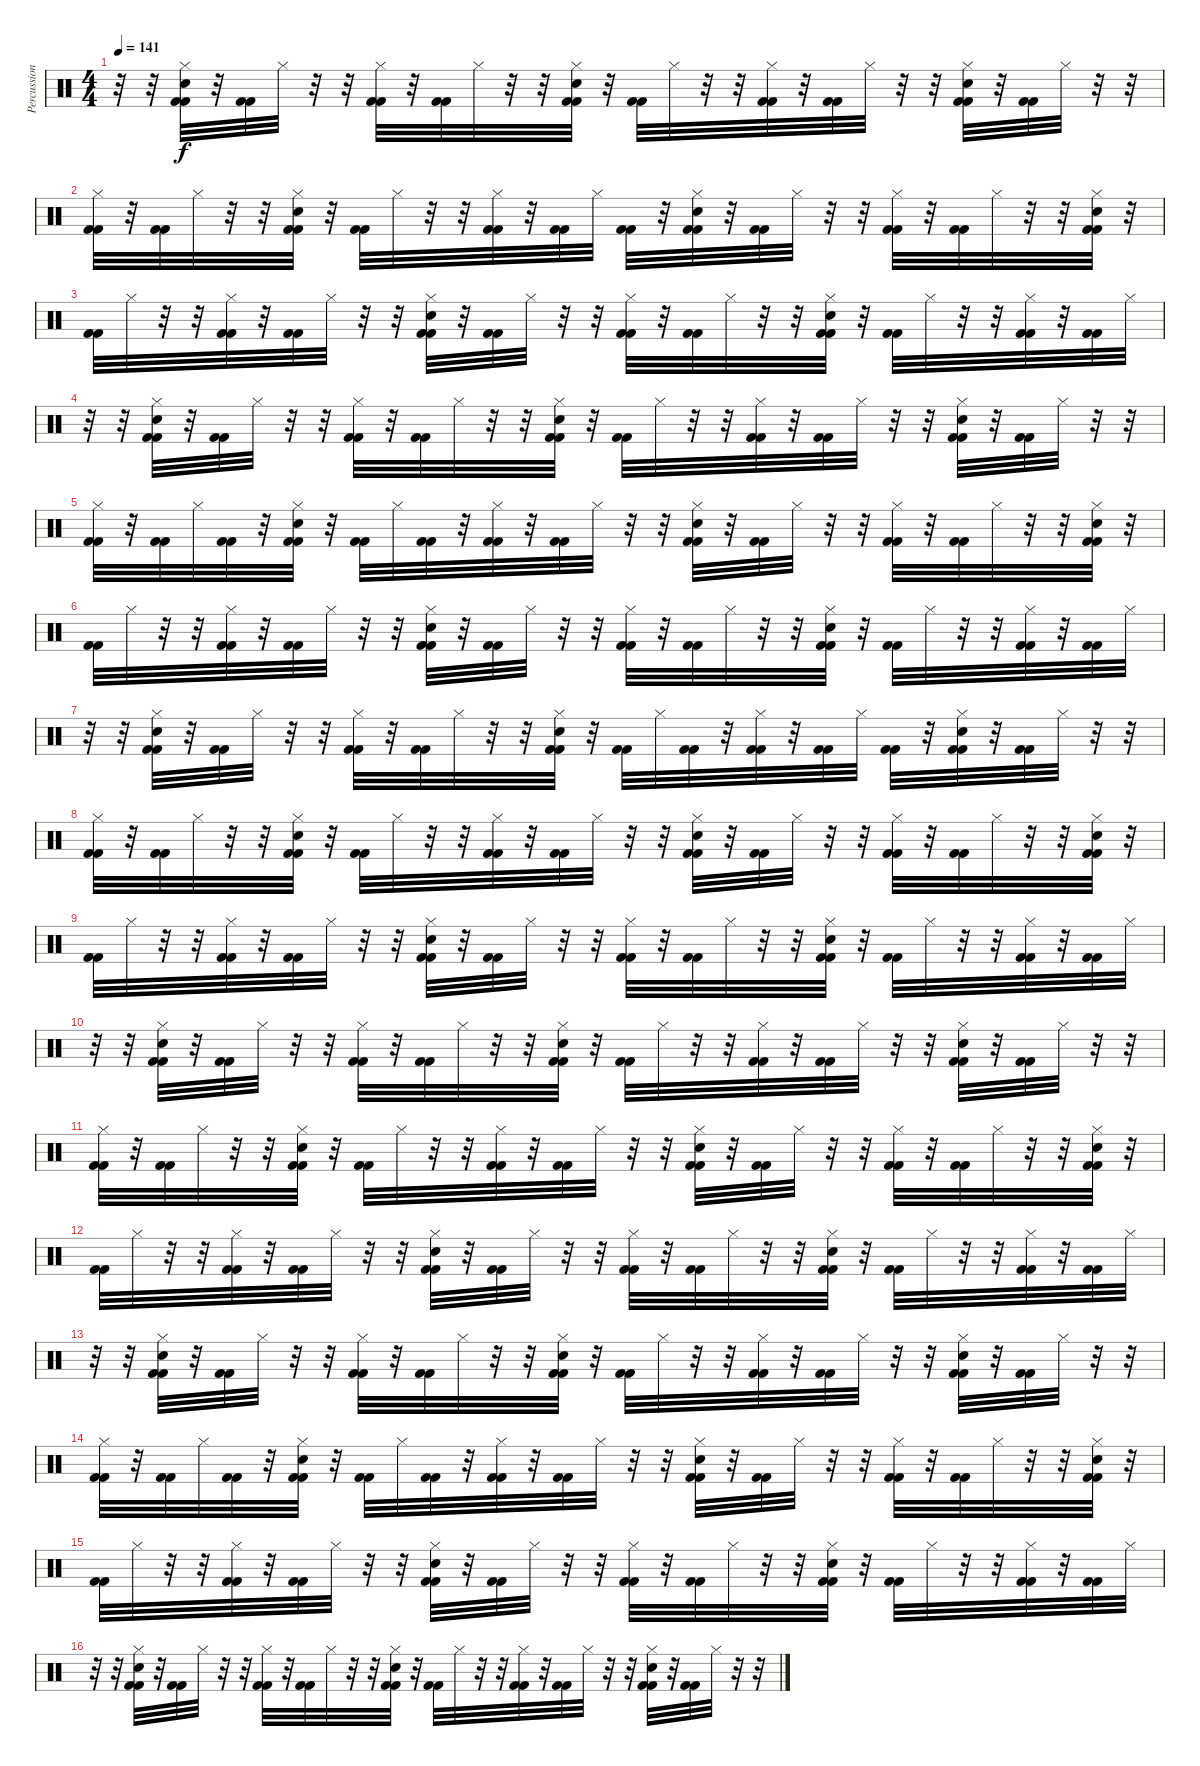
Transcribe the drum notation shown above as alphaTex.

\track ("Percussions" "Percussion") {instrument percussion}
\staff {score}
\articulation defaults
\ts (4 4)
\tempo 141
\clef neutral
\ks c
r.32{dy f} r.32 ("Hi-Hat (closed)" "Snare (hit) 2" "Kick (hit) 2" "Kick (hit) 2").32 r.32 ("Kick (hit) 2" "Kick (hit) 2").32 "Hi-Hat (closed)".32 r.32 r.32 ("Hi-Hat (closed)" "Kick (hit) 2" "Kick (hit) 2").32 r.32 ("Kick (hit) 2" "Kick (hit) 2").32 "Hi-Hat (closed)".32 r.32 r.32 ("Hi-Hat (closed)" "Snare (hit) 2" "Kick (hit) 2" "Kick (hit) 2").32 r.32 ("Kick (hit) 2" "Kick (hit) 2").32 "Hi-Hat (closed)".32 r.32 r.32 ("Hi-Hat (closed)" "Kick (hit) 2" "Kick (hit) 2").32 r.32 ("Kick (hit) 2" "Kick (hit) 2").32 "Hi-Hat (closed)".32 r.32 r.32 ("Hi-Hat (closed)" "Snare (hit) 2" "Kick (hit) 2" "Kick (hit) 2").32 r.32 ("Kick (hit) 2" "Kick (hit) 2").32 "Hi-Hat (closed)".32 r.32 r.32 |
("Hi-Hat (closed)" "Kick (hit) 2" "Kick (hit) 2").32 r.32 ("Kick (hit) 2" "Kick (hit) 2").32 "Hi-Hat (closed)".32 r.32 r.32 ("Hi-Hat (closed)" "Snare (hit) 2" "Kick (hit) 2" "Kick (hit) 2").32 r.32 ("Kick (hit) 2" "Kick (hit) 2").32 "Hi-Hat (closed)".32 r.32 r.32 ("Hi-Hat (closed)" "Kick (hit) 2" "Kick (hit) 2").32 r.32 ("Kick (hit) 2" "Kick (hit) 2").32 "Hi-Hat (closed)".32 ("Kick (hit) 2" "Kick (hit) 2").32 r.32 ("Hi-Hat (closed)" "Snare (hit) 2" "Kick (hit) 2" "Kick (hit) 2").32 r.32 ("Kick (hit) 2" "Kick (hit) 2").32 "Hi-Hat (closed)".32 r.32 r.32 ("Hi-Hat (closed)" "Kick (hit) 2" "Kick (hit) 2").32 r.32 ("Kick (hit) 2" "Kick (hit) 2").32 "Hi-Hat (closed)".32 r.32 r.32 ("Hi-Hat (closed)" "Snare (hit) 2" "Kick (hit) 2" "Kick (hit) 2").32 r.32 |
("Kick (hit) 2" "Kick (hit) 2").32 "Hi-Hat (closed)".32 r.32 r.32 ("Hi-Hat (closed)" "Kick (hit) 2" "Kick (hit) 2").32 r.32 ("Kick (hit) 2" "Kick (hit) 2").32 "Hi-Hat (closed)".32 r.32 r.32 ("Hi-Hat (closed)" "Snare (hit) 2" "Kick (hit) 2" "Kick (hit) 2").32 r.32 ("Kick (hit) 2" "Kick (hit) 2").32 "Hi-Hat (closed)".32 r.32 r.32 ("Hi-Hat (closed)" "Kick (hit) 2" "Kick (hit) 2").32 r.32 ("Kick (hit) 2" "Kick (hit) 2").32 "Hi-Hat (closed)".32 r.32 r.32 ("Hi-Hat (closed)" "Snare (hit) 2" "Kick (hit) 2" "Kick (hit) 2").32 r.32 ("Kick (hit) 2" "Kick (hit) 2").32 "Hi-Hat (closed)".32 r.32 r.32 ("Hi-Hat (closed)" "Kick (hit) 2" "Kick (hit) 2").32 r.32 ("Kick (hit) 2" "Kick (hit) 2").32 "Hi-Hat (closed)".32 |
r.32 r.32 ("Hi-Hat (closed)" "Snare (hit) 2" "Kick (hit) 2" "Kick (hit) 2").32 r.32 ("Kick (hit) 2" "Kick (hit) 2").32 "Hi-Hat (closed)".32 r.32 r.32 ("Hi-Hat (closed)" "Kick (hit) 2" "Kick (hit) 2").32 r.32 ("Kick (hit) 2" "Kick (hit) 2").32 "Hi-Hat (closed)".32 r.32 r.32 ("Hi-Hat (closed)" "Snare (hit) 2" "Kick (hit) 2" "Kick (hit) 2").32 r.32 ("Kick (hit) 2" "Kick (hit) 2").32 "Hi-Hat (closed)".32 r.32 r.32 ("Hi-Hat (closed)" "Kick (hit) 2" "Kick (hit) 2").32 r.32 ("Kick (hit) 2" "Kick (hit) 2").32 "Hi-Hat (closed)".32 r.32 r.32 ("Hi-Hat (closed)" "Snare (hit) 2" "Kick (hit) 2" "Kick (hit) 2").32 r.32 ("Kick (hit) 2" "Kick (hit) 2").32 "Hi-Hat (closed)".32 r.32 r.32 |
("Hi-Hat (closed)" "Kick (hit) 2" "Kick (hit) 2").32 r.32 ("Kick (hit) 2" "Kick (hit) 2").32 "Hi-Hat (closed)".32 ("Kick (hit) 2" "Kick (hit) 2").32 r.32 ("Hi-Hat (closed)" "Snare (hit) 2" "Kick (hit) 2" "Kick (hit) 2").32 r.32 ("Kick (hit) 2" "Kick (hit) 2").32 "Hi-Hat (closed)".32 ("Kick (hit) 2" "Kick (hit) 2").32 r.32 ("Hi-Hat (closed)" "Kick (hit) 2" "Kick (hit) 2").32 r.32 ("Kick (hit) 2" "Kick (hit) 2").32 "Hi-Hat (closed)".32 r.32 r.32 ("Hi-Hat (closed)" "Snare (hit) 2" "Kick (hit) 2" "Kick (hit) 2").32 r.32 ("Kick (hit) 2" "Kick (hit) 2").32 "Hi-Hat (closed)".32 r.32 r.32 ("Hi-Hat (closed)" "Kick (hit) 2" "Kick (hit) 2").32 r.32 ("Kick (hit) 2" "Kick (hit) 2").32 "Hi-Hat (closed)".32 r.32 r.32 ("Hi-Hat (closed)" "Snare (hit) 2" "Kick (hit) 2" "Kick (hit) 2").32 r.32 |
("Kick (hit) 2" "Kick (hit) 2").32 "Hi-Hat (closed)".32 r.32 r.32 ("Hi-Hat (closed)" "Kick (hit) 2" "Kick (hit) 2").32 r.32 ("Kick (hit) 2" "Kick (hit) 2").32 "Hi-Hat (closed)".32 r.32 r.32 ("Hi-Hat (closed)" "Snare (hit) 2" "Kick (hit) 2" "Kick (hit) 2").32 r.32 ("Kick (hit) 2" "Kick (hit) 2").32 "Hi-Hat (closed)".32 r.32 r.32 ("Hi-Hat (closed)" "Kick (hit) 2" "Kick (hit) 2").32 r.32 ("Kick (hit) 2" "Kick (hit) 2").32 "Hi-Hat (closed)".32 r.32 r.32 ("Hi-Hat (closed)" "Snare (hit) 2" "Kick (hit) 2" "Kick (hit) 2").32 r.32 ("Kick (hit) 2" "Kick (hit) 2").32 "Hi-Hat (closed)".32 r.32 r.32 ("Hi-Hat (closed)" "Kick (hit) 2" "Kick (hit) 2").32 r.32 ("Kick (hit) 2" "Kick (hit) 2").32 "Hi-Hat (closed)".32 |
r.32 r.32 ("Hi-Hat (closed)" "Snare (hit) 2" "Kick (hit) 2" "Kick (hit) 2").32 r.32 ("Kick (hit) 2" "Kick (hit) 2").32 "Hi-Hat (closed)".32 r.32 r.32 ("Hi-Hat (closed)" "Kick (hit) 2" "Kick (hit) 2").32 r.32 ("Kick (hit) 2" "Kick (hit) 2").32 "Hi-Hat (closed)".32 r.32 r.32 ("Hi-Hat (closed)" "Snare (hit) 2" "Kick (hit) 2" "Kick (hit) 2").32 r.32 ("Kick (hit) 2" "Kick (hit) 2").32 "Hi-Hat (closed)".32 ("Kick (hit) 2" "Kick (hit) 2").32 r.32 ("Hi-Hat (closed)" "Kick (hit) 2" "Kick (hit) 2").32 r.32 ("Kick (hit) 2" "Kick (hit) 2").32 "Hi-Hat (closed)".32 ("Kick (hit) 2" "Kick (hit) 2").32 r.32 ("Hi-Hat (closed)" "Snare (hit) 2" "Kick (hit) 2" "Kick (hit) 2").32 r.32 ("Kick (hit) 2" "Kick (hit) 2").32 "Hi-Hat (closed)".32 r.32 r.32 |
("Hi-Hat (closed)" "Kick (hit) 2" "Kick (hit) 2").32 r.32 ("Kick (hit) 2" "Kick (hit) 2").32 "Hi-Hat (closed)".32 r.32 r.32 ("Hi-Hat (closed)" "Snare (hit) 2" "Kick (hit) 2" "Kick (hit) 2").32 r.32 ("Kick (hit) 2" "Kick (hit) 2").32 "Hi-Hat (closed)".32 r.32 r.32 ("Hi-Hat (closed)" "Kick (hit) 2" "Kick (hit) 2").32 r.32 ("Kick (hit) 2" "Kick (hit) 2").32 "Hi-Hat (closed)".32 r.32 r.32 ("Hi-Hat (closed)" "Snare (hit) 2" "Kick (hit) 2" "Kick (hit) 2").32 r.32 ("Kick (hit) 2" "Kick (hit) 2").32 "Hi-Hat (closed)".32 r.32 r.32 ("Hi-Hat (closed)" "Kick (hit) 2" "Kick (hit) 2").32 r.32 ("Kick (hit) 2" "Kick (hit) 2").32 "Hi-Hat (closed)".32 r.32 r.32 ("Hi-Hat (closed)" "Snare (hit) 2" "Kick (hit) 2" "Kick (hit) 2").32 r.32 |
("Kick (hit) 2" "Kick (hit) 2").32 "Hi-Hat (closed)".32 r.32 r.32 ("Hi-Hat (closed)" "Kick (hit) 2" "Kick (hit) 2").32 r.32 ("Kick (hit) 2" "Kick (hit) 2").32 "Hi-Hat (closed)".32 r.32 r.32 ("Hi-Hat (closed)" "Snare (hit) 2" "Kick (hit) 2" "Kick (hit) 2").32 r.32 ("Kick (hit) 2" "Kick (hit) 2").32 "Hi-Hat (closed)".32 r.32 r.32 ("Hi-Hat (closed)" "Kick (hit) 2" "Kick (hit) 2").32 r.32 ("Kick (hit) 2" "Kick (hit) 2").32 "Hi-Hat (closed)".32 r.32 r.32 ("Hi-Hat (closed)" "Snare (hit) 2" "Kick (hit) 2" "Kick (hit) 2").32 r.32 ("Kick (hit) 2" "Kick (hit) 2").32 "Hi-Hat (closed)".32 r.32 r.32 ("Hi-Hat (closed)" "Kick (hit) 2" "Kick (hit) 2").32 r.32 ("Kick (hit) 2" "Kick (hit) 2").32 "Hi-Hat (closed)".32 |
r.32 r.32 ("Hi-Hat (closed)" "Snare (hit) 2" "Kick (hit) 2" "Kick (hit) 2").32 r.32 ("Kick (hit) 2" "Kick (hit) 2").32 "Hi-Hat (closed)".32 r.32 r.32 ("Hi-Hat (closed)" "Kick (hit) 2" "Kick (hit) 2").32 r.32 ("Kick (hit) 2" "Kick (hit) 2").32 "Hi-Hat (closed)".32 r.32 r.32 ("Hi-Hat (closed)" "Snare (hit) 2" "Kick (hit) 2" "Kick (hit) 2").32 r.32 ("Kick (hit) 2" "Kick (hit) 2").32 "Hi-Hat (closed)".32 r.32 r.32 ("Hi-Hat (closed)" "Kick (hit) 2" "Kick (hit) 2").32 r.32 ("Kick (hit) 2" "Kick (hit) 2").32 "Hi-Hat (closed)".32 r.32 r.32 ("Hi-Hat (closed)" "Snare (hit) 2" "Kick (hit) 2" "Kick (hit) 2").32 r.32 ("Kick (hit) 2" "Kick (hit) 2").32 "Hi-Hat (closed)".32 r.32 r.32 |
("Hi-Hat (closed)" "Kick (hit) 2" "Kick (hit) 2").32 r.32 ("Kick (hit) 2" "Kick (hit) 2").32 "Hi-Hat (closed)".32 r.32 r.32 ("Hi-Hat (closed)" "Snare (hit) 2" "Kick (hit) 2" "Kick (hit) 2").32 r.32 ("Kick (hit) 2" "Kick (hit) 2").32 "Hi-Hat (closed)".32 r.32 r.32 ("Hi-Hat (closed)" "Kick (hit) 2" "Kick (hit) 2").32 r.32 ("Kick (hit) 2" "Kick (hit) 2").32 "Hi-Hat (closed)".32 r.32 r.32 ("Hi-Hat (closed)" "Snare (hit) 2" "Kick (hit) 2" "Kick (hit) 2").32 r.32 ("Kick (hit) 2" "Kick (hit) 2").32 "Hi-Hat (closed)".32 r.32 r.32 ("Hi-Hat (closed)" "Kick (hit) 2" "Kick (hit) 2").32 r.32 ("Kick (hit) 2" "Kick (hit) 2").32 "Hi-Hat (closed)".32 r.32 r.32 ("Hi-Hat (closed)" "Snare (hit) 2" "Kick (hit) 2" "Kick (hit) 2").32 r.32 |
("Kick (hit) 2" "Kick (hit) 2").32 "Hi-Hat (closed)".32 r.32 r.32 ("Hi-Hat (closed)" "Kick (hit) 2" "Kick (hit) 2").32 r.32 ("Kick (hit) 2" "Kick (hit) 2").32 "Hi-Hat (closed)".32 r.32 r.32 ("Hi-Hat (closed)" "Snare (hit) 2" "Kick (hit) 2" "Kick (hit) 2").32 r.32 ("Kick (hit) 2" "Kick (hit) 2").32 "Hi-Hat (closed)".32 r.32 r.32 ("Hi-Hat (closed)" "Kick (hit) 2" "Kick (hit) 2").32 r.32 ("Kick (hit) 2" "Kick (hit) 2").32 "Hi-Hat (closed)".32 r.32 r.32 ("Hi-Hat (closed)" "Snare (hit) 2" "Kick (hit) 2" "Kick (hit) 2").32 r.32 ("Kick (hit) 2" "Kick (hit) 2").32 "Hi-Hat (closed)".32 r.32 r.32 ("Hi-Hat (closed)" "Kick (hit) 2" "Kick (hit) 2").32 r.32 ("Kick (hit) 2" "Kick (hit) 2").32 "Hi-Hat (closed)".32 |
r.32 r.32 ("Hi-Hat (closed)" "Snare (hit) 2" "Kick (hit) 2" "Kick (hit) 2").32 r.32 ("Kick (hit) 2" "Kick (hit) 2").32 "Hi-Hat (closed)".32 r.32 r.32 ("Hi-Hat (closed)" "Kick (hit) 2" "Kick (hit) 2").32 r.32 ("Kick (hit) 2" "Kick (hit) 2").32 "Hi-Hat (closed)".32 r.32 r.32 ("Hi-Hat (closed)" "Snare (hit) 2" "Kick (hit) 2" "Kick (hit) 2").32 r.32 ("Kick (hit) 2" "Kick (hit) 2").32 "Hi-Hat (closed)".32 r.32 r.32 ("Hi-Hat (closed)" "Kick (hit) 2" "Kick (hit) 2").32 r.32 ("Kick (hit) 2" "Kick (hit) 2").32 "Hi-Hat (closed)".32 r.32 r.32 ("Hi-Hat (closed)" "Snare (hit) 2" "Kick (hit) 2" "Kick (hit) 2").32 r.32 ("Kick (hit) 2" "Kick (hit) 2").32 "Hi-Hat (closed)".32 r.32 r.32 |
("Hi-Hat (closed)" "Kick (hit) 2" "Kick (hit) 2").32 r.32 ("Kick (hit) 2" "Kick (hit) 2").32 "Hi-Hat (closed)".32 ("Kick (hit) 2" "Kick (hit) 2").32 r.32 ("Hi-Hat (closed)" "Snare (hit) 2" "Kick (hit) 2" "Kick (hit) 2").32 r.32 ("Kick (hit) 2" "Kick (hit) 2").32 "Hi-Hat (closed)".32 ("Kick (hit) 2" "Kick (hit) 2").32 r.32 ("Hi-Hat (closed)" "Kick (hit) 2" "Kick (hit) 2").32 r.32 ("Kick (hit) 2" "Kick (hit) 2").32 "Hi-Hat (closed)".32 r.32 r.32 ("Hi-Hat (closed)" "Snare (hit) 2" "Kick (hit) 2" "Kick (hit) 2").32 r.32 ("Kick (hit) 2" "Kick (hit) 2").32 "Hi-Hat (closed)".32 r.32 r.32 ("Hi-Hat (closed)" "Kick (hit) 2" "Kick (hit) 2").32 r.32 ("Kick (hit) 2" "Kick (hit) 2").32 "Hi-Hat (closed)".32 r.32 r.32 ("Hi-Hat (closed)" "Snare (hit) 2" "Kick (hit) 2" "Kick (hit) 2").32 r.32 |
("Kick (hit) 2" "Kick (hit) 2").32 "Hi-Hat (closed)".32 r.32 r.32 ("Hi-Hat (closed)" "Kick (hit) 2" "Kick (hit) 2").32 r.32 ("Kick (hit) 2" "Kick (hit) 2").32 "Hi-Hat (closed)".32 r.32 r.32 ("Hi-Hat (closed)" "Snare (hit) 2" "Kick (hit) 2" "Kick (hit) 2").32 r.32 ("Kick (hit) 2" "Kick (hit) 2").32 "Hi-Hat (closed)".32 r.32 r.32 ("Hi-Hat (closed)" "Kick (hit) 2" "Kick (hit) 2").32 r.32 ("Kick (hit) 2" "Kick (hit) 2").32 "Hi-Hat (closed)".32 r.32 r.32 ("Hi-Hat (closed)" "Snare (hit) 2" "Kick (hit) 2" "Kick (hit) 2").32 r.32 ("Kick (hit) 2" "Kick (hit) 2").32 "Hi-Hat (closed)".32 r.32 r.32 ("Hi-Hat (closed)" "Kick (hit) 2" "Kick (hit) 2").32 r.32 ("Kick (hit) 2" "Kick (hit) 2").32 "Hi-Hat (closed)".32 |
r.32 r.32 ("Hi-Hat (closed)" "Snare (hit) 2" "Kick (hit) 2" "Kick (hit) 2").32 r.32 ("Kick (hit) 2" "Kick (hit) 2").32 "Hi-Hat (closed)".32 r.32 r.32 ("Hi-Hat (closed)" "Kick (hit) 2" "Kick (hit) 2").32 r.32 ("Kick (hit) 2" "Kick (hit) 2").32 "Hi-Hat (closed)".32 r.32 r.32 ("Hi-Hat (closed)" "Snare (hit) 2" "Kick (hit) 2" "Kick (hit) 2").32 r.32 ("Kick (hit) 2" "Kick (hit) 2").32 "Hi-Hat (closed)".32 r.32 r.32 ("Hi-Hat (closed)" "Kick (hit) 2" "Kick (hit) 2").32 r.32 ("Kick (hit) 2" "Kick (hit) 2").32 "Hi-Hat (closed)".32 r.32 r.32 ("Hi-Hat (closed)" "Snare (hit) 2" "Kick (hit) 2" "Kick (hit) 2").32 r.32 ("Kick (hit) 2" "Kick (hit) 2").32 "Hi-Hat (closed)".32 r.32 r.32
